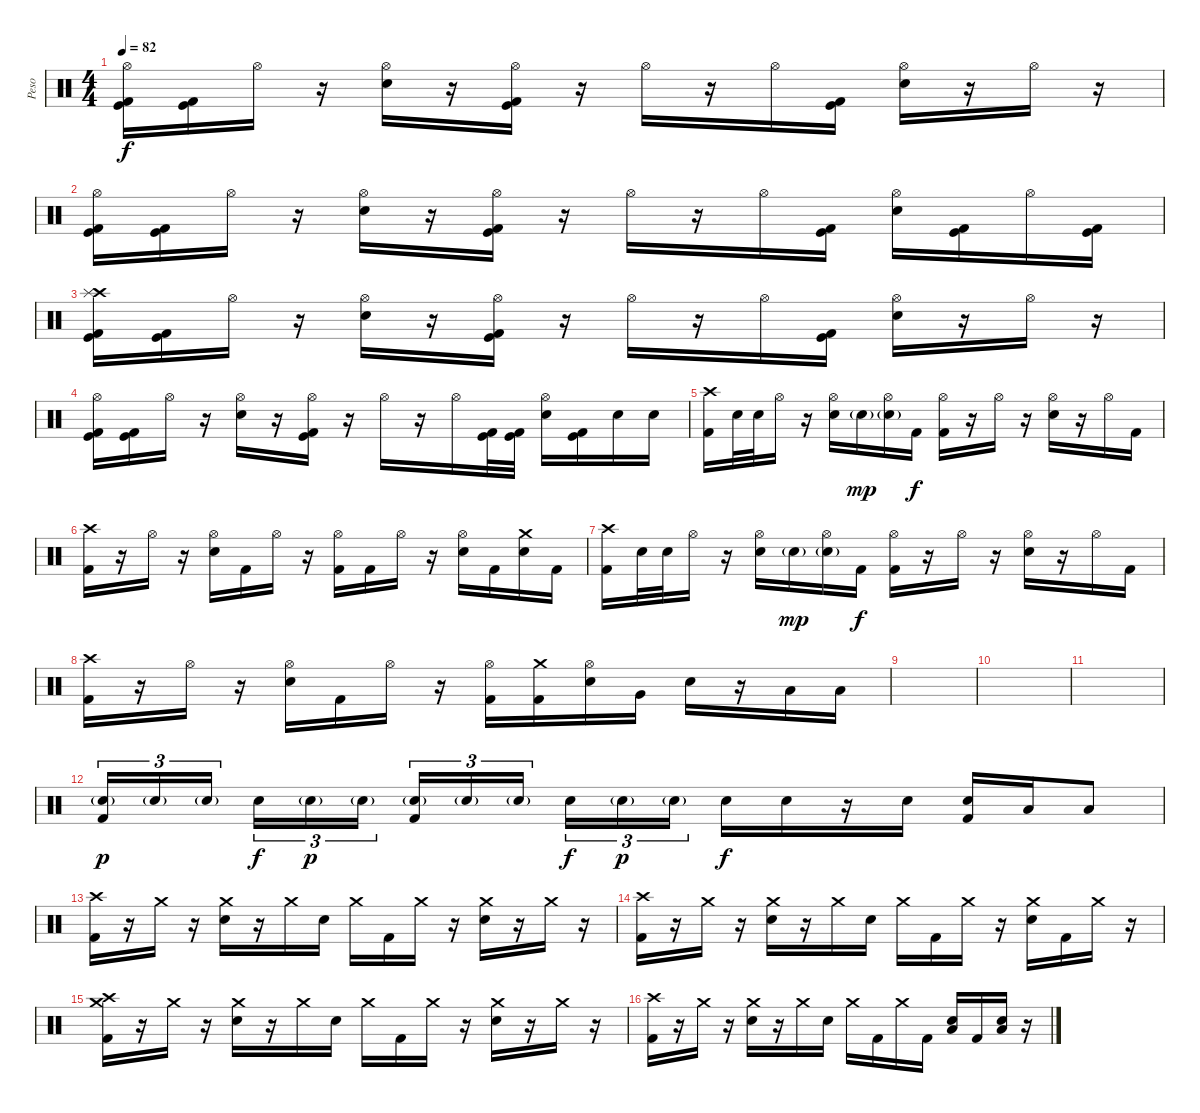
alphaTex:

\track ("Peso" "Peso") {instrument percussion}
\staff {score}
\articulation defaults
\ts (4 4)
\tempo 82
\clef neutral
\ks c
("Hi-Hat (open)" "Kick (hit)" "Kick (hit) 2").16{dy f} ("Kick (hit)" "Kick (hit) 2").16 "Hi-Hat (open)".16 r.16 ("Hi-Hat (open)" "Electric Snare (hit)").16 r.16 ("Hi-Hat (open)" "Kick (hit)" "Kick (hit) 2").16 r.16 "Hi-Hat (open)".16 r.16 "Hi-Hat (open)".16 ("Kick (hit)" "Kick (hit) 2").16 ("Hi-Hat (open)" "Electric Snare (hit)").16 r.16 "Hi-Hat (open)".16 r.16 |
("Hi-Hat (open)" "Kick (hit)" "Kick (hit) 2").16 ("Kick (hit)" "Kick (hit) 2").16 "Hi-Hat (open)".16 r.16 ("Hi-Hat (open)" "Electric Snare (hit)").16 r.16 ("Hi-Hat (open)" "Kick (hit)" "Kick (hit) 2").16 r.16 "Hi-Hat (open)".16 r.16 "Hi-Hat (open)".16 ("Kick (hit)" "Kick (hit) 2").16 ("Hi-Hat (open)" "Electric Snare (hit)").16 ("Kick (hit)" "Kick (hit) 2").16 "Hi-Hat (open)".16 ("Kick (hit)" "Kick (hit) 2").16 |
("Crash high (hit)" "Splash (hit)" "Kick (hit)" "Kick (hit) 2").16 ("Kick (hit)" "Kick (hit) 2").16 "Hi-Hat (open)".16 r.16 ("Hi-Hat (open)" "Electric Snare (hit)").16 r.16 ("Hi-Hat (open)" "Kick (hit)" "Kick (hit) 2").16 r.16 "Hi-Hat (open)".16 r.16 "Hi-Hat (open)".16 ("Kick (hit)" "Kick (hit) 2").16 ("Hi-Hat (open)" "Electric Snare (hit)").16 r.16 "Hi-Hat (open)".16 r.16 |
("Hi-Hat (open)" "Kick (hit)" "Kick (hit) 2").16 ("Kick (hit)" "Kick (hit) 2").16 "Hi-Hat (open)".16 r.16 ("Hi-Hat (open)" "Electric Snare (hit)").16 r.16 ("Hi-Hat (open)" "Kick (hit)" "Kick (hit) 2").16 r.16 "Hi-Hat (open)".16 r.16 "Hi-Hat (open)".16 ("Kick (hit)" "Kick (hit) 2").32 ("Kick (hit)" "Kick (hit) 2").32 ("Hi-Hat (open)" "Electric Snare (hit)").16 ("Kick (hit)" "Kick (hit) 2").16 "Electric Snare (hit)".16 "Electric Snare (hit)".16 |
("Crash high (hit)" "Kick (hit) 2").16 "Electric Snare (hit)".32 "Electric Snare (hit)".32 "Hi-Hat (open)".16 r.16 ("Hi-Hat (open)" "Electric Snare (hit)").16 "Electric Snare (hit)"{g}.16{dy mp} ("Hi-Hat (open)" "Electric Snare (hit)"{g}).16 "Kick (hit) 2".16{dy f} ("Hi-Hat (open)" "Kick (hit) 2").16 r.16 "Hi-Hat (open)".16 r.16 ("Hi-Hat (open)" "Electric Snare (hit)").16 r.16 "Hi-Hat (open)".16 "Kick (hit) 2".16 |
("Crash high (hit)" "Kick (hit) 2").16 r.16 "Hi-Hat (open)".16 r.16 ("Hi-Hat (open)" "Electric Snare (hit)").16 "Kick (hit) 2".16 "Hi-Hat (open)".16 r.16 ("Hi-Hat (open)" "Kick (hit) 2").16 "Kick (hit) 2".16 "Hi-Hat (open)".16 r.16 ("Hi-Hat (open)" "Electric Snare (hit)").16 "Kick (hit) 2".16 ("Crash medium (hit)" "Electric Snare (hit)").16 "Kick (hit) 2".16 |
("Crash high (hit)" "Kick (hit) 2").16 "Electric Snare (hit)".32 "Electric Snare (hit)".32 "Hi-Hat (open)".16 r.16 ("Hi-Hat (open)" "Electric Snare (hit)").16 "Electric Snare (hit)"{g}.16{dy mp} ("Hi-Hat (open)" "Electric Snare (hit)"{g}).16 "Kick (hit) 2".16{dy f} ("Hi-Hat (open)" "Kick (hit) 2").16 r.16 "Hi-Hat (open)".16 r.16 ("Hi-Hat (open)" "Electric Snare (hit)").16 r.16 "Hi-Hat (open)".16 "Kick (hit) 2".16 |
("Crash high (hit)" "Kick (hit) 2").16 r.16 "Hi-Hat (open)".16 r.16 ("Hi-Hat (open)" "Electric Snare (hit)").16 "Kick (hit) 2".16 "Hi-Hat (open)".16 r.16 ("Hi-Hat (open)" "Kick (hit) 2").16 ("Crash medium (hit)" "Kick (hit) 2").16 ("Hi-Hat (open)" "Electric Snare (hit)").16 "Very Low Tom (hit)".16 "Electric Snare (hit)".16 r.16 "Low Tom (hit)".16 "Low Tom (hit)".16 |
|
|
|
("Electric Snare (hit)"{g} "Kick (hit) 2").16{tu (3 2) dy p} "Electric Snare (hit)"{g}.16{tu (3 2)} "Electric Snare (hit)"{g}.16{tu (3 2)} "Electric Snare (hit)".16{tu (3 2) dy f} "Electric Snare (hit)"{g}.16{tu (3 2) dy p} "Electric Snare (hit)"{g}.16{tu (3 2)} ("Electric Snare (hit)"{g} "Kick (hit) 2").16{tu (3 2)} "Electric Snare (hit)"{g}.16{tu (3 2)} "Electric Snare (hit)"{g}.16{tu (3 2)} "Electric Snare (hit)".16{tu (3 2) dy f} "Electric Snare (hit)"{g}.16{tu (3 2) dy p} "Electric Snare (hit)"{g}.16{tu (3 2)} "Electric Snare (hit)".16{dy f} "Electric Snare (hit)".16 r.16 "Electric Snare (hit)".16 ("Electric Snare (hit)" "Kick (hit) 2").16 "Low Tom (hit)".16 "Low Tom (hit)".8 |
("Crash high (hit)" "Kick (hit) 2").16 r.16 "Crash medium (hit)".16 r.16 ("Crash medium (hit)" "Electric Snare (hit)").16 r.16 "Crash medium (hit)".16 "Electric Snare (hit)".16 "Crash medium (hit)".16 "Kick (hit) 2".16 "Crash medium (hit)".16 r.16 ("Crash medium (hit)" "Electric Snare (hit)").16 r.16 "Crash medium (hit)".16 r.16 |
("Crash high (hit)" "Kick (hit) 2").16 r.16 "Crash medium (hit)".16 r.16 ("Crash medium (hit)" "Electric Snare (hit)").16 r.16 "Crash medium (hit)".16 "Electric Snare (hit)".16 "Crash medium (hit)".16 "Kick (hit) 2".16 "Crash medium (hit)".16 r.16 ("Crash medium (hit)" "Electric Snare (hit)").16 "Kick (hit) 2".16 "Crash medium (hit)".16 r.16 |
("Crash high (hit)" "Crash medium (hit)" "Kick (hit) 2").16 r.16 "Crash medium (hit)".16 r.16 ("Crash medium (hit)" "Electric Snare (hit)").16 r.16 "Crash medium (hit)".16 "Electric Snare (hit)".16 "Crash medium (hit)".16 "Kick (hit) 2".16 "Crash medium (hit)".16 r.16 ("Crash medium (hit)" "Electric Snare (hit)").16 r.16 "Crash medium (hit)".16 r.16 |
("Crash high (hit)" "Kick (hit) 2").16 r.16 "Crash medium (hit)".16 r.16 ("Crash medium (hit)" "Electric Snare (hit)").16 r.16 "Crash medium (hit)".16 "Electric Snare (hit)".16 "Crash medium (hit)".16 "Kick (hit) 2".16 "Crash medium (hit)".16 "Kick (hit) 2".16 ("Low Floor Tom (hit)" "Electric Snare (hit)").16 "Kick (hit) 2".16 ("Low Floor Tom (hit)" "Electric Snare (hit)").16 r.16
